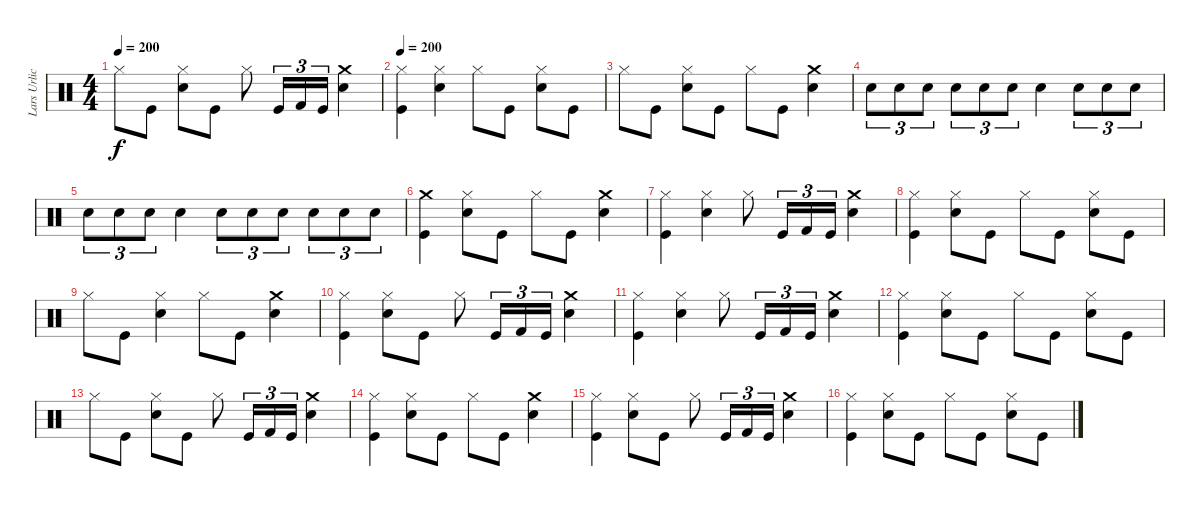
\track ("Lars Urlich" "Lars Urlic") {instrument percussion}
\staff {score}
\articulation defaults
\ts (4 4)
\tempo 200
\clef neutral
\ks c "Hi-Hat (closed)".8{dy f} "Kick (hit)".8
("Snare (hit) 2" "Hi-Hat (closed)").8 "Kick (hit)".8 "Hi-Hat (closed)".8 "Kick (hit)".16{tu (3 2)} "Kick (hit) 2".16{tu (3 2)} "Kick (hit)".16{tu (3 2)} ("Crash medium (hit)" "Snare (hit) 2").4 |
\tempo 200
("Kick (hit)" "Hi-Hat (closed)").4 ("Snare (hit) 2" "Hi-Hat (closed)").4 "Hi-Hat (closed)".8 "Kick (hit)".8 ("Snare (hit) 2" "Hi-Hat (closed)").8 "Kick (hit)".8 |
"Hi-Hat (closed)".8 "Kick (hit)".8 ("Snare (hit) 2" "Hi-Hat (closed)").8 "Kick (hit)".8 "Hi-Hat (closed)".8 "Kick (hit)".8 ("Crash medium (hit)" "Snare (hit) 2").4 |
"Snare (hit) 2".8{tu (3 2)} "Snare (hit) 2".8{tu (3 2)} "Snare (hit) 2".8{tu (3 2)} "Snare (hit) 2".8{tu (3 2)} "Snare (hit) 2".8{tu (3 2)} "Snare (hit) 2".8{tu (3 2)} "Snare (hit) 2".4 "Snare (hit) 2".8{tu (3 2)} "Snare (hit) 2".8{tu (3 2)} "Snare (hit) 2".8{tu (3 2)} |
"Snare (hit) 2".8{tu (3 2)} "Snare (hit) 2".8{tu (3 2)} "Snare (hit) 2".8{tu (3 2)} "Snare (hit) 2".4 "Snare (hit) 2".8{tu (3 2)} "Snare (hit) 2".8{tu (3 2)} "Snare (hit) 2".8{tu (3 2)} "Snare (hit) 2".8{tu (3 2)} "Snare (hit) 2".8{tu (3 2)} "Snare (hit) 2".8{tu (3 2)} |
("Kick (hit)" "Crash medium (hit)").4 ("Hi-Hat (closed)" "Snare (hit) 2").8 "Kick (hit)".8 "Hi-Hat (closed)".8 "Kick (hit)".8 ("Crash medium (hit)" "Snare (hit) 2").4 |
("Hi-Hat (closed)" "Kick (hit)").4 ("Snare (hit) 2" "Hi-Hat (closed)").4 "Hi-Hat (closed)".8 "Kick (hit)".16{tu (3 2)} "Kick (hit) 2".16{tu (3 2)} "Kick (hit)".16{tu (3 2)} ("Crash medium (hit)" "Snare (hit) 2").4 |
("Hi-Hat (closed)" "Kick (hit)").4 ("Snare (hit) 2" "Hi-Hat (closed)").8 "Kick (hit)".8 "Hi-Hat (closed)".8 "Kick (hit)".8 ("Snare (hit) 2" "Hi-Hat (closed)").8 "Kick (hit)".8 |
"Hi-Hat (closed)".8 "Kick (hit)".8 ("Snare (hit) 2" "Hi-Hat (closed)").4 "Hi-Hat (closed)".8 "Kick (hit)".8 ("Crash medium (hit)" "Snare (hit) 2").4 |
("Kick (hit)" "Hi-Hat (closed)").4 ("Snare (hit) 2" "Hi-Hat (closed)").8 "Kick (hit)".8 "Hi-Hat (closed)".8 "Kick (hit)".16{tu (3 2)} "Kick (hit) 2".16{tu (3 2)} "Kick (hit)".16{tu (3 2)} ("Crash medium (hit)" "Snare (hit) 2").4 |
("Hi-Hat (closed)" "Kick (hit)").4 ("Snare (hit) 2" "Hi-Hat (closed)").4 "Hi-Hat (closed)".8 "Kick (hit)".16{tu (3 2)} "Kick (hit) 2".16{tu (3 2)} "Kick (hit)".16{tu (3 2)} ("Crash medium (hit)" "Snare (hit) 2").4 |
("Hi-Hat (closed)" "Kick (hit)").4 ("Snare (hit) 2" "Hi-Hat (closed)").8 "Kick (hit)".8 "Hi-Hat (closed)".8 "Kick (hit)".8 ("Snare (hit) 2" "Hi-Hat (closed)").8 "Kick (hit)".8 |
"Hi-Hat (closed)".8 "Kick (hit)".8 ("Snare (hit) 2" "Hi-Hat (closed)").8 "Kick (hit)".8 "Hi-Hat (closed)".8 "Kick (hit)".16{tu (3 2)} "Kick (hit) 2".16{tu (3 2)} "Kick (hit)".16{tu (3 2)} ("Crash medium (hit)" "Snare (hit) 2").4 |
("Hi-Hat (closed)" "Kick (hit)").4 ("Snare (hit) 2" "Hi-Hat (closed)").8 "Kick (hit)".8 "Hi-Hat (closed)".8 "Kick (hit)".8 ("Crash medium (hit)" "Snare (hit) 2").4 |
("Kick (hit)" "Hi-Hat (closed)").4 ("Snare (hit) 2" "Hi-Hat (closed)").8 "Kick (hit)".8 "Hi-Hat (closed)".8 "Kick (hit)".16{tu (3 2)} "Kick (hit) 2".16{tu (3 2)} "Kick (hit)".16{tu (3 2)} ("Crash medium (hit)" "Snare (hit) 2").4 |
("Hi-Hat (closed)" "Kick (hit)").4 ("Snare (hit) 2" "Hi-Hat (closed)").8 "Kick (hit)".8 "Hi-Hat (closed)".8 "Kick (hit)".8 ("Snare (hit) 2" "Hi-Hat (closed)").8 "Kick (hit)".8
